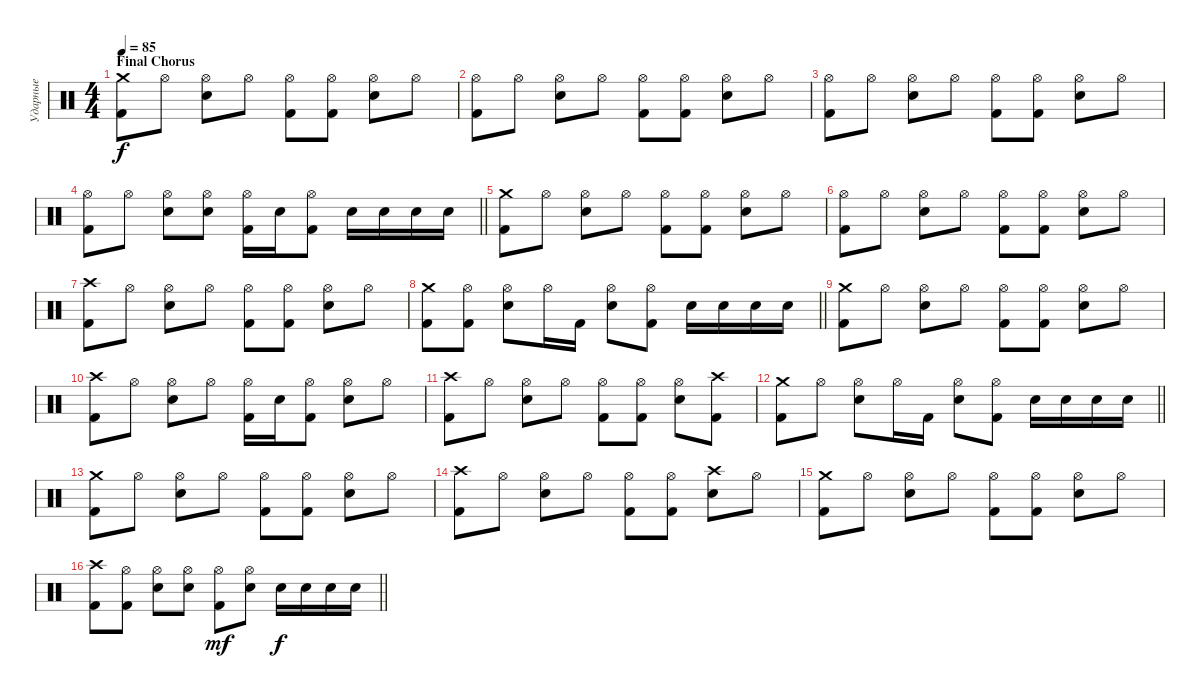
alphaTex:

\track ("Ударные" "Ударные") {instrument percussion}
\staff {score}
\articulation defaults
\ts (4 4)
\section ("" "Final Chorus")
\tempo 85
\clef neutral
\ks c
("Crash medium (hit)" "Kick (hit) 2").8{dy f} "Hi-Hat (open)".8 ("Hi-Hat (open)" "Electric Snare (hit)").8 "Hi-Hat (open)".8 ("Hi-Hat (open)" "Kick (hit) 2").8 ("Hi-Hat (open)" "Kick (hit) 2").8 ("Hi-Hat (open)" "Electric Snare (hit)").8 "Hi-Hat (open)".8 |
("Hi-Hat (open)" "Kick (hit) 2").8 "Hi-Hat (open)".8 ("Hi-Hat (open)" "Electric Snare (hit)").8 "Hi-Hat (open)".8 ("Hi-Hat (open)" "Kick (hit) 2").8 ("Hi-Hat (open)" "Kick (hit) 2").8 ("Hi-Hat (open)" "Electric Snare (hit)").8 "Hi-Hat (open)".8 |
("Hi-Hat (open)" "Kick (hit) 2").8 "Hi-Hat (open)".8 ("Hi-Hat (open)" "Electric Snare (hit)").8 "Hi-Hat (open)".8 ("Hi-Hat (open)" "Kick (hit) 2").8 ("Hi-Hat (open)" "Kick (hit) 2").8 ("Hi-Hat (open)" "Electric Snare (hit)").8 "Hi-Hat (open)".8 |
\barLineRight lightlight
("Hi-Hat (open)" "Kick (hit) 2").8 "Hi-Hat (open)".8 ("Hi-Hat (open)" "Electric Snare (hit)").8 ("Hi-Hat (open)" "Electric Snare (hit)").8 ("Hi-Hat (open)" "Kick (hit) 2").16 "Electric Snare (hit)".16 ("Hi-Hat (open)" "Kick (hit) 2").8 "Electric Snare (hit)".16 "Electric Snare (hit)".16 "Electric Snare (hit)".16 "Electric Snare (hit)".16 |
("Crash medium (hit)" "Kick (hit) 2").8 "Hi-Hat (open)".8 ("Hi-Hat (open)" "Electric Snare (hit)").8 "Hi-Hat (open)".8 ("Hi-Hat (open)" "Kick (hit) 2").8 ("Hi-Hat (open)" "Kick (hit) 2").8 ("Hi-Hat (open)" "Electric Snare (hit)").8 "Hi-Hat (open)".8 |
("Hi-Hat (open)" "Kick (hit) 2").8 "Hi-Hat (open)".8 ("Hi-Hat (open)" "Electric Snare (hit)").8 "Hi-Hat (open)".8 ("Hi-Hat (open)" "Kick (hit) 2").8 ("Hi-Hat (open)" "Kick (hit) 2").8 ("Hi-Hat (open)" "Electric Snare (hit)").8 "Hi-Hat (open)".8 |
("Crash high (hit)" "Kick (hit) 2").8 "Hi-Hat (open)".8 ("Hi-Hat (open)" "Electric Snare (hit)").8 "Hi-Hat (open)".8 ("Hi-Hat (open)" "Kick (hit) 2").8 ("Hi-Hat (open)" "Kick (hit) 2").8 ("Hi-Hat (open)" "Electric Snare (hit)").8 "Hi-Hat (open)".8 |
\barLineRight lightlight
("Crash medium (hit)" "Kick (hit) 2").8 ("Hi-Hat (open)" "Kick (hit) 2").8 ("Hi-Hat (open)" "Electric Snare (hit)").8 "Hi-Hat (open)".16 "Kick (hit) 2".16 ("Hi-Hat (open)" "Electric Snare (hit)").8 ("Hi-Hat (open)" "Kick (hit) 2").8 "Electric Snare (hit)".16 "Electric Snare (hit)".16 "Electric Snare (hit)".16 "Electric Snare (hit)".16 |
("Crash medium (hit)" "Kick (hit) 2").8 "Hi-Hat (open)".8 ("Hi-Hat (open)" "Electric Snare (hit)").8 "Hi-Hat (open)".8 ("Hi-Hat (open)" "Kick (hit) 2").8 ("Hi-Hat (open)" "Kick (hit) 2").8 ("Hi-Hat (open)" "Electric Snare (hit)").8 "Hi-Hat (open)".8 |
("Crash high (hit)" "Kick (hit) 2").8 "Hi-Hat (open)".8 ("Hi-Hat (open)" "Electric Snare (hit)").8 "Hi-Hat (open)".8 ("Hi-Hat (open)" "Kick (hit) 2").16 "Electric Snare (hit)".16 ("Hi-Hat (open)" "Kick (hit) 2").8 ("Hi-Hat (open)" "Electric Snare (hit)").8 "Hi-Hat (open)".8 |
("Crash high (hit)" "Kick (hit) 2").8 "Hi-Hat (open)".8 ("Hi-Hat (open)" "Electric Snare (hit)").8 "Hi-Hat (open)".8 ("Hi-Hat (open)" "Kick (hit) 2").8 ("Hi-Hat (open)" "Kick (hit) 2").8 ("Hi-Hat (open)" "Electric Snare (hit)").8 ("Crash high (hit)" "Kick (hit) 2").8 |
\barLineRight lightlight
("Crash medium (hit)" "Kick (hit) 2").8 "Hi-Hat (open)".8 ("Hi-Hat (open)" "Electric Snare (hit)").8 "Hi-Hat (open)".16 "Kick (hit) 2".16 ("Hi-Hat (open)" "Electric Snare (hit)").8 ("Hi-Hat (open)" "Kick (hit) 2").8 "Electric Snare (hit)".16 "Electric Snare (hit)".16 "Electric Snare (hit)".16 "Electric Snare (hit)".16 |
("Crash medium (hit)" "Kick (hit) 2").8 "Hi-Hat (open)".8 ("Hi-Hat (open)" "Electric Snare (hit)").8 "Hi-Hat (open)".8 ("Hi-Hat (open)" "Kick (hit) 2").8 ("Hi-Hat (open)" "Kick (hit) 2").8 ("Hi-Hat (open)" "Electric Snare (hit)").8 "Hi-Hat (open)".8 |
("Crash high (hit)" "Kick (hit) 2").8 "Hi-Hat (open)".8 ("Hi-Hat (open)" "Electric Snare (hit)").8 "Hi-Hat (open)".8 ("Hi-Hat (open)" "Kick (hit) 2").8 ("Hi-Hat (open)" "Kick (hit) 2").8 ("Crash high (hit)" "Electric Snare (hit)").8 "Hi-Hat (open)".8 |
("Crash medium (hit)" "Kick (hit) 2").8 "Hi-Hat (open)".8 ("Hi-Hat (open)" "Electric Snare (hit)").8 "Hi-Hat (open)".8 ("Hi-Hat (open)" "Kick (hit) 2").8 ("Hi-Hat (open)" "Kick (hit) 2").8 ("Hi-Hat (open)" "Electric Snare (hit)").8 "Hi-Hat (open)".8 |
\barLineRight lightlight
("Crash high (hit)" "Kick (hit) 2").8 ("Hi-Hat (open)" "Kick (hit) 2").8 ("Hi-Hat (open)" "Electric Snare (hit)").8 ("Hi-Hat (open)" "Electric Snare (hit)").8 ("Hi-Hat (open)" "Kick (hit) 2").8{dy mf} ("Hi-Hat (open)" "Electric Snare (hit)").8 "Electric Snare (hit)".16{dy f} "Electric Snare (hit)".16 "Electric Snare (hit)".16 "Electric Snare (hit)".16
